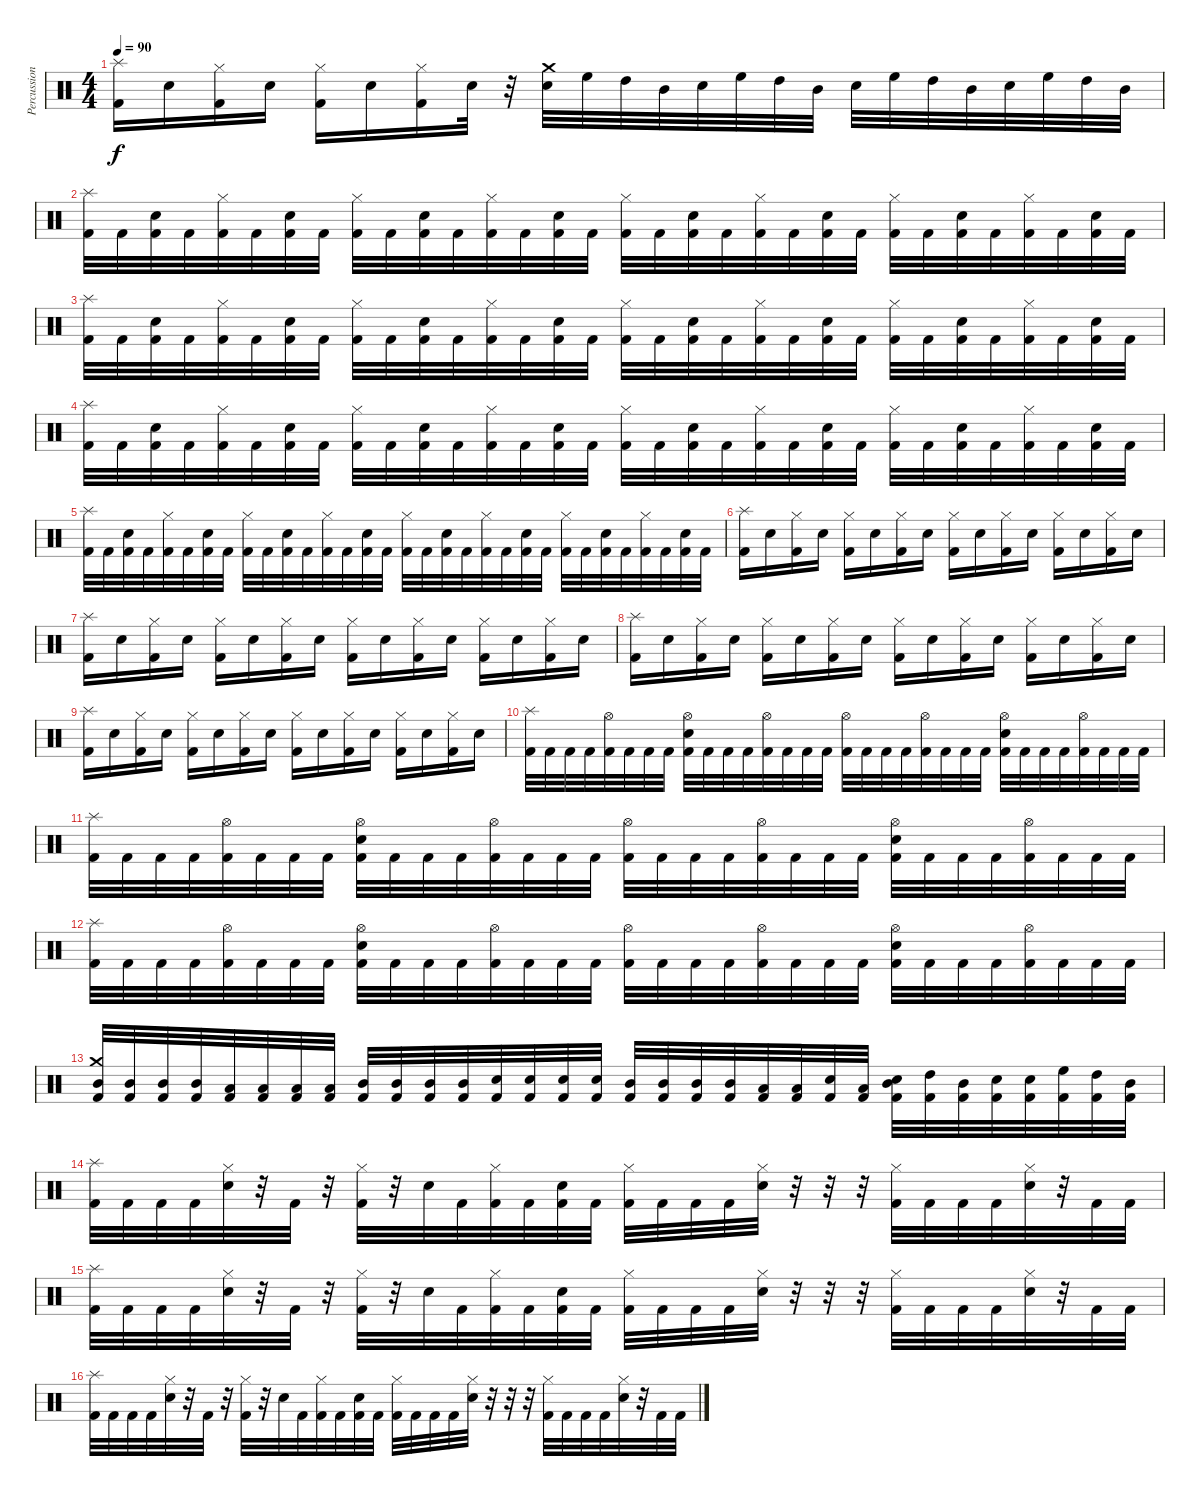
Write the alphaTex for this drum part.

\track ("Percussion" "Percussion") {instrument percussion}
\staff {score}
\articulation defaults
\ts (4 4)
\tempo 90
\clef neutral
\ks c
("Splash (hit)" "Kick (hit) 2").16{dy f} "Snare (hit) 2".16 ("Hi-Hat (closed)" "Kick (hit) 2").16 "Snare (hit) 2".16 ("Hi-Hat (closed)" "Kick (hit) 2").16 "Snare (hit) 2".16 ("Hi-Hat (closed)" "Kick (hit) 2").16 "Snare (hit) 2".32 r.32 ("Crash medium (hit)" "Snare (hit) 2").32 "High Floor Tom (hit)".32 "High Tom (hit)".32 "Mid Tom (hit)".32 "Snare (hit) 2".32 "High Floor Tom (hit)".32 "High Tom (hit)".32 "Mid Tom (hit)".32 "Snare (hit) 2".32 "High Floor Tom (hit)".32 "High Tom (hit)".32 "Mid Tom (hit)".32 "Snare (hit) 2".32 "High Floor Tom (hit)".32 "High Tom (hit)".32 "Mid Tom (hit)".32 |
("Splash (hit)" "Kick (hit) 2").32 "Kick (hit) 2".32 ("Snare (hit) 2" "Kick (hit) 2").32 "Kick (hit) 2".32 ("Hi-Hat (closed)" "Kick (hit) 2").32 "Kick (hit) 2".32 ("Snare (hit) 2" "Kick (hit) 2").32 "Kick (hit) 2".32 ("Hi-Hat (closed)" "Kick (hit) 2").32 "Kick (hit) 2".32 ("Snare (hit) 2" "Kick (hit) 2").32 "Kick (hit) 2".32 ("Hi-Hat (closed)" "Kick (hit) 2").32 "Kick (hit) 2".32 ("Snare (hit) 2" "Kick (hit) 2").32 "Kick (hit) 2".32 ("Hi-Hat (closed)" "Kick (hit) 2").32 "Kick (hit) 2".32 ("Snare (hit) 2" "Kick (hit) 2").32 "Kick (hit) 2".32 ("Hi-Hat (closed)" "Kick (hit) 2").32 "Kick (hit) 2".32 ("Snare (hit) 2" "Kick (hit) 2").32 "Kick (hit) 2".32 ("Hi-Hat (closed)" "Kick (hit) 2").32 "Kick (hit) 2".32 ("Snare (hit) 2" "Kick (hit) 2").32 "Kick (hit) 2".32 ("Hi-Hat (closed)" "Kick (hit) 2").32 "Kick (hit) 2".32 ("Snare (hit) 2" "Kick (hit) 2").32 "Kick (hit) 2".32 |
("Splash (hit)" "Kick (hit) 2").32 "Kick (hit) 2".32 ("Snare (hit) 2" "Kick (hit) 2").32 "Kick (hit) 2".32 ("Hi-Hat (closed)" "Kick (hit) 2").32 "Kick (hit) 2".32 ("Snare (hit) 2" "Kick (hit) 2").32 "Kick (hit) 2".32 ("Hi-Hat (closed)" "Kick (hit) 2").32 "Kick (hit) 2".32 ("Snare (hit) 2" "Kick (hit) 2").32 "Kick (hit) 2".32 ("Hi-Hat (closed)" "Kick (hit) 2").32 "Kick (hit) 2".32 ("Snare (hit) 2" "Kick (hit) 2").32 "Kick (hit) 2".32 ("Hi-Hat (closed)" "Kick (hit) 2").32 "Kick (hit) 2".32 ("Snare (hit) 2" "Kick (hit) 2").32 "Kick (hit) 2".32 ("Hi-Hat (closed)" "Kick (hit) 2").32 "Kick (hit) 2".32 ("Snare (hit) 2" "Kick (hit) 2").32 "Kick (hit) 2".32 ("Hi-Hat (closed)" "Kick (hit) 2").32 "Kick (hit) 2".32 ("Snare (hit) 2" "Kick (hit) 2").32 "Kick (hit) 2".32 ("Hi-Hat (closed)" "Kick (hit) 2").32 "Kick (hit) 2".32 ("Snare (hit) 2" "Kick (hit) 2").32 "Kick (hit) 2".32 |
("Splash (hit)" "Kick (hit) 2").32 "Kick (hit) 2".32 ("Snare (hit) 2" "Kick (hit) 2").32 "Kick (hit) 2".32 ("Hi-Hat (closed)" "Kick (hit) 2").32 "Kick (hit) 2".32 ("Snare (hit) 2" "Kick (hit) 2").32 "Kick (hit) 2".32 ("Hi-Hat (closed)" "Kick (hit) 2").32 "Kick (hit) 2".32 ("Snare (hit) 2" "Kick (hit) 2").32 "Kick (hit) 2".32 ("Hi-Hat (closed)" "Kick (hit) 2").32 "Kick (hit) 2".32 ("Snare (hit) 2" "Kick (hit) 2").32 "Kick (hit) 2".32 ("Hi-Hat (closed)" "Kick (hit) 2").32 "Kick (hit) 2".32 ("Snare (hit) 2" "Kick (hit) 2").32 "Kick (hit) 2".32 ("Hi-Hat (closed)" "Kick (hit) 2").32 "Kick (hit) 2".32 ("Snare (hit) 2" "Kick (hit) 2").32 "Kick (hit) 2".32 ("Hi-Hat (closed)" "Kick (hit) 2").32 "Kick (hit) 2".32 ("Snare (hit) 2" "Kick (hit) 2").32 "Kick (hit) 2".32 ("Hi-Hat (closed)" "Kick (hit) 2").32 "Kick (hit) 2".32 ("Snare (hit) 2" "Kick (hit) 2").32 "Kick (hit) 2".32 |
("Splash (hit)" "Kick (hit) 2").32 "Kick (hit) 2".32 ("Snare (hit) 2" "Kick (hit) 2").32 "Kick (hit) 2".32 ("Hi-Hat (closed)" "Kick (hit) 2").32 "Kick (hit) 2".32 ("Snare (hit) 2" "Kick (hit) 2").32 "Kick (hit) 2".32 ("Hi-Hat (closed)" "Kick (hit) 2").32 "Kick (hit) 2".32 ("Snare (hit) 2" "Kick (hit) 2").32 "Kick (hit) 2".32 ("Hi-Hat (closed)" "Kick (hit) 2").32 "Kick (hit) 2".32 ("Snare (hit) 2" "Kick (hit) 2").32 "Kick (hit) 2".32 ("Hi-Hat (closed)" "Kick (hit) 2").32 "Kick (hit) 2".32 ("Snare (hit) 2" "Kick (hit) 2").32 "Kick (hit) 2".32 ("Hi-Hat (closed)" "Kick (hit) 2").32 "Kick (hit) 2".32 ("Snare (hit) 2" "Kick (hit) 2").32 "Kick (hit) 2".32 ("Hi-Hat (closed)" "Kick (hit) 2").32 "Kick (hit) 2".32 ("Snare (hit) 2" "Kick (hit) 2").32 "Kick (hit) 2".32 ("Hi-Hat (closed)" "Kick (hit) 2").32 "Kick (hit) 2".32 ("Snare (hit) 2" "Kick (hit) 2").32 "Kick (hit) 2".32 |
("Splash (hit)" "Kick (hit) 2").16 "Snare (hit) 2".16 ("Hi-Hat (closed)" "Kick (hit) 2").16 "Snare (hit) 2".16 ("Hi-Hat (closed)" "Kick (hit) 2").16 "Snare (hit) 2".16 ("Hi-Hat (closed)" "Kick (hit) 2").16 "Snare (hit) 2".16 ("Hi-Hat (closed)" "Kick (hit) 2").16 "Snare (hit) 2".16 ("Hi-Hat (closed)" "Kick (hit) 2").16 "Snare (hit) 2".16 ("Hi-Hat (closed)" "Kick (hit) 2").16 "Snare (hit) 2".16 ("Hi-Hat (closed)" "Kick (hit) 2").16 "Snare (hit) 2".16 |
("Splash (hit)" "Kick (hit) 2").16 "Snare (hit) 2".16 ("Hi-Hat (closed)" "Kick (hit) 2").16 "Snare (hit) 2".16 ("Hi-Hat (closed)" "Kick (hit) 2").16 "Snare (hit) 2".16 ("Hi-Hat (closed)" "Kick (hit) 2").16 "Snare (hit) 2".16 ("Hi-Hat (closed)" "Kick (hit) 2").16 "Snare (hit) 2".16 ("Hi-Hat (closed)" "Kick (hit) 2").16 "Snare (hit) 2".16 ("Hi-Hat (closed)" "Kick (hit) 2").16 "Snare (hit) 2".16 ("Hi-Hat (closed)" "Kick (hit) 2").16 "Snare (hit) 2".16 |
("Splash (hit)" "Kick (hit) 2").16 "Snare (hit) 2".16 ("Hi-Hat (closed)" "Kick (hit) 2").16 "Snare (hit) 2".16 ("Hi-Hat (closed)" "Kick (hit) 2").16 "Snare (hit) 2".16 ("Hi-Hat (closed)" "Kick (hit) 2").16 "Snare (hit) 2".16 ("Hi-Hat (closed)" "Kick (hit) 2").16 "Snare (hit) 2".16 ("Hi-Hat (closed)" "Kick (hit) 2").16 "Snare (hit) 2".16 ("Hi-Hat (closed)" "Kick (hit) 2").16 "Snare (hit) 2".16 ("Hi-Hat (closed)" "Kick (hit) 2").16 "Snare (hit) 2".16 |
("Splash (hit)" "Kick (hit) 2").16 "Snare (hit) 2".16 ("Hi-Hat (closed)" "Kick (hit) 2").16 "Snare (hit) 2".16 ("Hi-Hat (closed)" "Kick (hit) 2").16 "Snare (hit) 2".16 ("Hi-Hat (closed)" "Kick (hit) 2").16 "Snare (hit) 2".16 ("Hi-Hat (closed)" "Kick (hit) 2").16 "Snare (hit) 2".16 ("Hi-Hat (closed)" "Kick (hit) 2").16 "Snare (hit) 2".16 ("Hi-Hat (closed)" "Kick (hit) 2").16 "Snare (hit) 2".16 ("Hi-Hat (closed)" "Kick (hit) 2").16 "Snare (hit) 2".16 |
("Splash (hit)" "Kick (hit) 2").32 "Kick (hit) 2".32 "Kick (hit) 2".32 "Kick (hit) 2".32 ("Hi-Hat (open)" "Kick (hit) 2").32 "Kick (hit) 2".32 "Kick (hit) 2".32 "Kick (hit) 2".32 ("Snare (hit) 2" "Hi-Hat (open)" "Kick (hit) 2").32 "Kick (hit) 2".32 "Kick (hit) 2".32 "Kick (hit) 2".32 ("Hi-Hat (open)" "Kick (hit) 2").32 "Kick (hit) 2".32 "Kick (hit) 2".32 "Kick (hit) 2".32 ("Hi-Hat (open)" "Kick (hit) 2").32 "Kick (hit) 2".32 "Kick (hit) 2".32 "Kick (hit) 2".32 ("Hi-Hat (open)" "Kick (hit) 2").32 "Kick (hit) 2".32 "Kick (hit) 2".32 "Kick (hit) 2".32 ("Snare (hit) 2" "Hi-Hat (open)" "Kick (hit) 2").32 "Kick (hit) 2".32 "Kick (hit) 2".32 "Kick (hit) 2".32 ("Hi-Hat (open)" "Kick (hit) 2").32 "Kick (hit) 2".32 "Kick (hit) 2".32 "Kick (hit) 2".32 |
("Splash (hit)" "Kick (hit) 2").32 "Kick (hit) 2".32 "Kick (hit) 2".32 "Kick (hit) 2".32 ("Hi-Hat (open)" "Kick (hit) 2").32 "Kick (hit) 2".32 "Kick (hit) 2".32 "Kick (hit) 2".32 ("Snare (hit) 2" "Hi-Hat (open)" "Kick (hit) 2").32 "Kick (hit) 2".32 "Kick (hit) 2".32 "Kick (hit) 2".32 ("Hi-Hat (open)" "Kick (hit) 2").32 "Kick (hit) 2".32 "Kick (hit) 2".32 "Kick (hit) 2".32 ("Hi-Hat (open)" "Kick (hit) 2").32 "Kick (hit) 2".32 "Kick (hit) 2".32 "Kick (hit) 2".32 ("Hi-Hat (open)" "Kick (hit) 2").32 "Kick (hit) 2".32 "Kick (hit) 2".32 "Kick (hit) 2".32 ("Snare (hit) 2" "Hi-Hat (open)" "Kick (hit) 2").32 "Kick (hit) 2".32 "Kick (hit) 2".32 "Kick (hit) 2".32 ("Hi-Hat (open)" "Kick (hit) 2").32 "Kick (hit) 2".32 "Kick (hit) 2".32 "Kick (hit) 2".32 |
("Splash (hit)" "Kick (hit) 2").32 "Kick (hit) 2".32 "Kick (hit) 2".32 "Kick (hit) 2".32 ("Hi-Hat (open)" "Kick (hit) 2").32 "Kick (hit) 2".32 "Kick (hit) 2".32 "Kick (hit) 2".32 ("Snare (hit) 2" "Hi-Hat (open)" "Kick (hit) 2").32 "Kick (hit) 2".32 "Kick (hit) 2".32 "Kick (hit) 2".32 ("Hi-Hat (open)" "Kick (hit) 2").32 "Kick (hit) 2".32 "Kick (hit) 2".32 "Kick (hit) 2".32 ("Hi-Hat (open)" "Kick (hit) 2").32 "Kick (hit) 2".32 "Kick (hit) 2".32 "Kick (hit) 2".32 ("Hi-Hat (open)" "Kick (hit) 2").32 "Kick (hit) 2".32 "Kick (hit) 2".32 "Kick (hit) 2".32 ("Snare (hit) 2" "Hi-Hat (open)" "Kick (hit) 2").32 "Kick (hit) 2".32 "Kick (hit) 2".32 "Kick (hit) 2".32 ("Hi-Hat (open)" "Kick (hit) 2").32 "Kick (hit) 2".32 "Kick (hit) 2".32 "Kick (hit) 2".32 |
("Crash medium (hit)" "Mid Tom (hit)" "Kick (hit) 2").32 ("Mid Tom (hit)" "Kick (hit) 2").32 ("Mid Tom (hit)" "Kick (hit) 2").32 ("Mid Tom (hit)" "Kick (hit) 2").32 ("Low Tom (hit)" "Kick (hit) 2").32 ("Low Tom (hit)" "Kick (hit) 2").32 ("Low Tom (hit)" "Kick (hit) 2").32 ("Low Tom (hit)" "Kick (hit) 2").32 ("Mid Tom (hit)" "Kick (hit) 2").32 ("Mid Tom (hit)" "Kick (hit) 2").32 ("Mid Tom (hit)" "Kick (hit) 2").32 ("Mid Tom (hit)" "Kick (hit) 2").32 ("Snare (hit) 2" "Kick (hit) 2").32 ("Snare (hit) 2" "Kick (hit) 2").32 ("Snare (hit) 2" "Kick (hit) 2").32 ("Snare (hit) 2" "Kick (hit) 2").32 ("Mid Tom (hit)" "Kick (hit) 2").32 ("Mid Tom (hit)" "Kick (hit) 2").32 ("Mid Tom (hit)" "Kick (hit) 2").32 ("Mid Tom (hit)" "Kick (hit) 2").32 ("Low Tom (hit)" "Kick (hit) 2").32 ("Low Tom (hit)" "Kick (hit) 2").32 ("Snare (hit) 2" "Kick (hit) 2").32 ("Low Tom (hit)" "Kick (hit) 2").32 ("Snare (hit) 2" "Mid Tom (hit)" "Kick (hit) 2").32 ("High Tom (hit)" "Kick (hit) 2").32 ("Mid Tom (hit)" "Kick (hit) 2").32 ("Snare (hit) 2" "Kick (hit) 2").32 ("Snare (hit) 2" "Kick (hit) 2").32 ("High Floor Tom (hit)" "Kick (hit) 2").32 ("High Tom (hit)" "Kick (hit) 2").32 ("Mid Tom (hit)" "Kick (hit) 2").32 |
("Splash (hit)" "Kick (hit) 2").32 "Kick (hit) 2".32 "Kick (hit) 2".32 "Kick (hit) 2".32 ("Hi-Hat (closed)" "Snare (hit) 2").32 r.32 "Kick (hit) 2".32 r.32 ("Kick (hit) 2" "Hi-Hat (closed)").32 r.32 "Snare (hit) 2".32 "Kick (hit) 2".32 ("Kick (hit) 2" "Hi-Hat (closed)").32 "Kick (hit) 2".32 ("Snare (hit) 2" "Kick (hit) 2").32 "Kick (hit) 2".32 ("Kick (hit) 2" "Hi-Hat (closed)").32 "Kick (hit) 2".32 "Kick (hit) 2".32 "Kick (hit) 2".32 ("Snare (hit) 2" "Hi-Hat (closed)").32 r.32 r.32 r.32 ("Kick (hit) 2" "Hi-Hat (closed)").32 "Kick (hit) 2".32 "Kick (hit) 2".32 "Kick (hit) 2".32 ("Snare (hit) 2" "Hi-Hat (closed)").32 r.32 "Kick (hit) 2".32 "Kick (hit) 2".32 |
("Splash (hit)" "Kick (hit) 2").32 "Kick (hit) 2".32 "Kick (hit) 2".32 "Kick (hit) 2".32 ("Hi-Hat (closed)" "Snare (hit) 2").32 r.32 "Kick (hit) 2".32 r.32 ("Kick (hit) 2" "Hi-Hat (closed)").32 r.32 "Snare (hit) 2".32 "Kick (hit) 2".32 ("Kick (hit) 2" "Hi-Hat (closed)").32 "Kick (hit) 2".32 ("Snare (hit) 2" "Kick (hit) 2").32 "Kick (hit) 2".32 ("Kick (hit) 2" "Hi-Hat (closed)").32 "Kick (hit) 2".32 "Kick (hit) 2".32 "Kick (hit) 2".32 ("Snare (hit) 2" "Hi-Hat (closed)").32 r.32 r.32 r.32 ("Kick (hit) 2" "Hi-Hat (closed)").32 "Kick (hit) 2".32 "Kick (hit) 2".32 "Kick (hit) 2".32 ("Snare (hit) 2" "Hi-Hat (closed)").32 r.32 "Kick (hit) 2".32 "Kick (hit) 2".32 |
("Splash (hit)" "Kick (hit) 2").32 "Kick (hit) 2".32 "Kick (hit) 2".32 "Kick (hit) 2".32 ("Hi-Hat (closed)" "Snare (hit) 2").32 r.32 "Kick (hit) 2".32 r.32 ("Kick (hit) 2" "Hi-Hat (closed)").32 r.32 "Snare (hit) 2".32 "Kick (hit) 2".32 ("Kick (hit) 2" "Hi-Hat (closed)").32 "Kick (hit) 2".32 ("Snare (hit) 2" "Kick (hit) 2").32 "Kick (hit) 2".32 ("Kick (hit) 2" "Hi-Hat (closed)").32 "Kick (hit) 2".32 "Kick (hit) 2".32 "Kick (hit) 2".32 ("Snare (hit) 2" "Hi-Hat (closed)").32 r.32 r.32 r.32 ("Kick (hit) 2" "Hi-Hat (closed)").32 "Kick (hit) 2".32 "Kick (hit) 2".32 "Kick (hit) 2".32 ("Snare (hit) 2" "Hi-Hat (closed)").32 r.32 "Kick (hit) 2".32 "Kick (hit) 2".32
